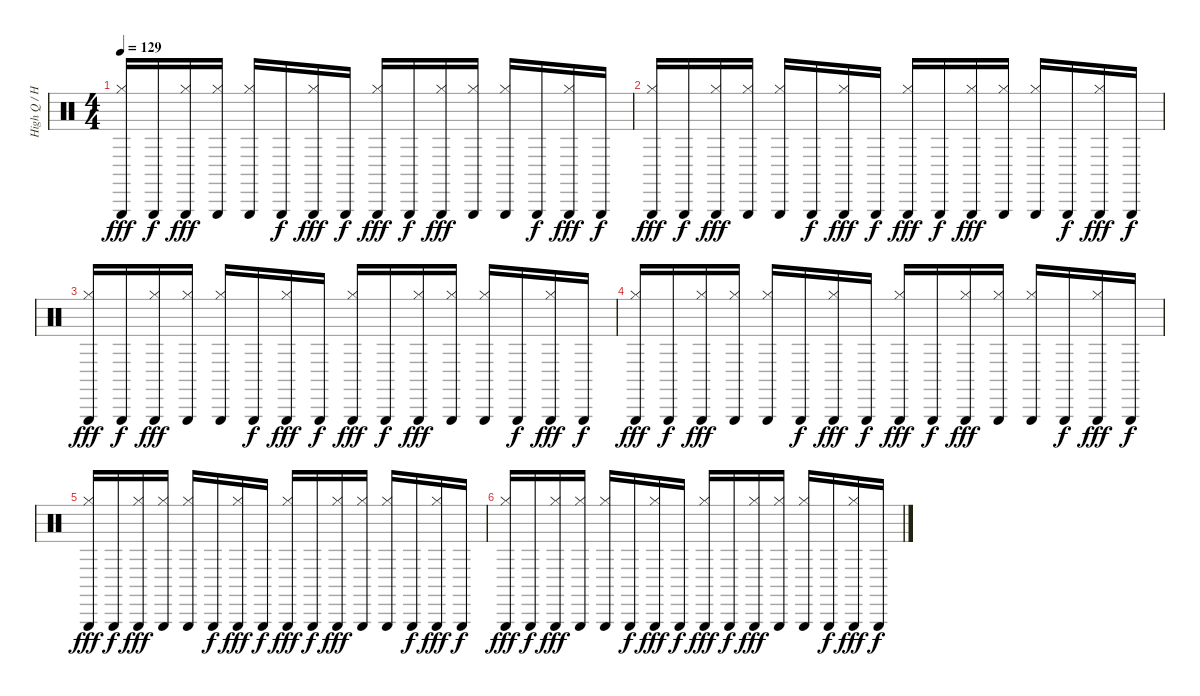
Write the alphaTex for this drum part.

\track ("High Q / Hats" "High Q / H") {instrument percussion}
\staff {score}
\articulation defaults
\ts (4 4)
\tempo 129
\clef neutral
\ks c
("Triangle (hit)" "Hi-Hat (closed)").16{dy fff} "Triangle (hit)".16{dy f} ("Triangle (hit)" "Hi-Hat (closed)").16{dy fff} ("Triangle (hit)" "Hi-Hat (closed)").16 ("Triangle (hit)" "Hi-Hat (closed)").16 "Triangle (hit)".16{dy f} ("Triangle (hit)" "Hi-Hat (closed)").16{dy fff} "Triangle (hit)".16{dy f} ("Triangle (hit)" "Hi-Hat (closed)").16{dy fff} "Triangle (hit)".16{dy f} ("Triangle (hit)" "Hi-Hat (closed)").16{dy fff} ("Triangle (hit)" "Hi-Hat (closed)").16 ("Triangle (hit)" "Hi-Hat (closed)").16 "Triangle (hit)".16{dy f} ("Triangle (hit)" "Hi-Hat (closed)").16{dy fff} "Triangle (hit)".16{dy f} |
("Triangle (hit)" "Hi-Hat (closed)").16{dy fff} "Triangle (hit)".16{dy f} ("Triangle (hit)" "Hi-Hat (closed)").16{dy fff} ("Triangle (hit)" "Hi-Hat (closed)").16 ("Triangle (hit)" "Hi-Hat (closed)").16 "Triangle (hit)".16{dy f} ("Triangle (hit)" "Hi-Hat (closed)").16{dy fff} "Triangle (hit)".16{dy f} ("Triangle (hit)" "Hi-Hat (closed)").16{dy fff} "Triangle (hit)".16{dy f} ("Triangle (hit)" "Hi-Hat (closed)").16{dy fff} ("Triangle (hit)" "Hi-Hat (closed)").16 ("Triangle (hit)" "Hi-Hat (closed)").16 "Triangle (hit)".16{dy f} ("Triangle (hit)" "Hi-Hat (closed)").16{dy fff} "Triangle (hit)".16{dy f} |
("Triangle (hit)" "Hi-Hat (closed)").16{dy fff} "Triangle (hit)".16{dy f} ("Triangle (hit)" "Hi-Hat (closed)").16{dy fff} ("Triangle (hit)" "Hi-Hat (closed)").16 ("Triangle (hit)" "Hi-Hat (closed)").16 "Triangle (hit)".16{dy f} ("Triangle (hit)" "Hi-Hat (closed)").16{dy fff} "Triangle (hit)".16{dy f} ("Triangle (hit)" "Hi-Hat (closed)").16{dy fff} "Triangle (hit)".16{dy f} ("Triangle (hit)" "Hi-Hat (closed)").16{dy fff} ("Triangle (hit)" "Hi-Hat (closed)").16 ("Triangle (hit)" "Hi-Hat (closed)").16 "Triangle (hit)".16{dy f} ("Triangle (hit)" "Hi-Hat (closed)").16{dy fff} "Triangle (hit)".16{dy f} |
("Triangle (hit)" "Hi-Hat (closed)").16{dy fff} "Triangle (hit)".16{dy f} ("Triangle (hit)" "Hi-Hat (closed)").16{dy fff} ("Triangle (hit)" "Hi-Hat (closed)").16 ("Triangle (hit)" "Hi-Hat (closed)").16 "Triangle (hit)".16{dy f} ("Triangle (hit)" "Hi-Hat (closed)").16{dy fff} "Triangle (hit)".16{dy f} ("Triangle (hit)" "Hi-Hat (closed)").16{dy fff} "Triangle (hit)".16{dy f} ("Triangle (hit)" "Hi-Hat (closed)").16{dy fff} ("Triangle (hit)" "Hi-Hat (closed)").16 ("Triangle (hit)" "Hi-Hat (closed)").16 "Triangle (hit)".16{dy f} ("Triangle (hit)" "Hi-Hat (closed)").16{dy fff} "Triangle (hit)".16{dy f} |
("Triangle (hit)" "Hi-Hat (closed)").16{dy fff} "Triangle (hit)".16{dy f} ("Triangle (hit)" "Hi-Hat (closed)").16{dy fff} ("Triangle (hit)" "Hi-Hat (closed)").16 ("Triangle (hit)" "Hi-Hat (closed)").16 "Triangle (hit)".16{dy f} ("Triangle (hit)" "Hi-Hat (closed)").16{dy fff} "Triangle (hit)".16{dy f} ("Triangle (hit)" "Hi-Hat (closed)").16{dy fff} "Triangle (hit)".16{dy f} ("Triangle (hit)" "Hi-Hat (closed)").16{dy fff} ("Triangle (hit)" "Hi-Hat (closed)").16 ("Triangle (hit)" "Hi-Hat (closed)").16 "Triangle (hit)".16{dy f} ("Triangle (hit)" "Hi-Hat (closed)").16{dy fff} "Triangle (hit)".16{dy f} |
("Triangle (hit)" "Hi-Hat (closed)").16{dy fff} "Triangle (hit)".16{dy f} ("Triangle (hit)" "Hi-Hat (closed)").16{dy fff} ("Triangle (hit)" "Hi-Hat (closed)").16 ("Triangle (hit)" "Hi-Hat (closed)").16 "Triangle (hit)".16{dy f} ("Triangle (hit)" "Hi-Hat (closed)").16{dy fff} "Triangle (hit)".16{dy f} ("Triangle (hit)" "Hi-Hat (closed)").16{dy fff} "Triangle (hit)".16{dy f} ("Triangle (hit)" "Hi-Hat (closed)").16{dy fff} ("Triangle (hit)" "Hi-Hat (closed)").16 ("Triangle (hit)" "Hi-Hat (closed)").16 "Triangle (hit)".16{dy f} ("Triangle (hit)" "Hi-Hat (closed)").16{dy fff} "Triangle (hit)".16{dy f}
